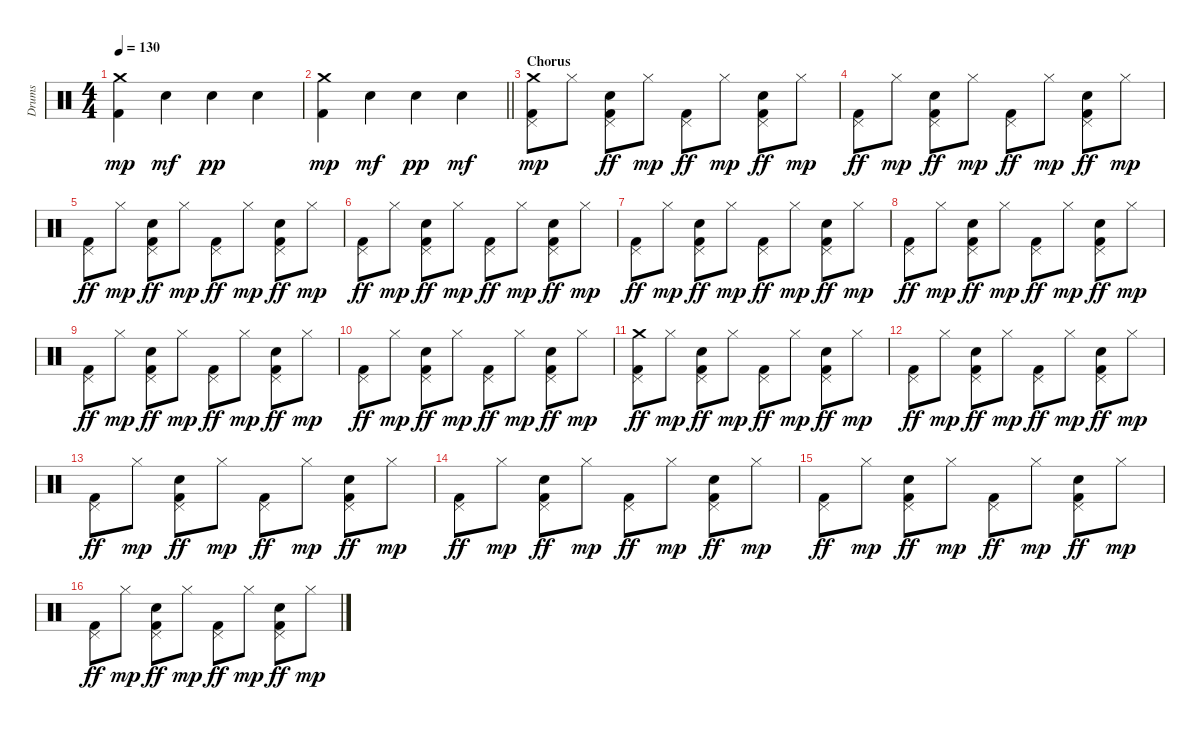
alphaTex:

\track ("Drums" "Drums") {instrument percussion}
\staff {score}
\articulation defaults
\ts (4 4)
\tempo 130
\clef neutral
\ks c
("Kick (hit) 2" "Crash medium (hit)").4{dy mp} "Electric Snare (hit)".4{dy mf} "Electric Snare (hit)".4{dy pp} "Electric Snare (hit)".4 |
\barLineRight lightlight
("Kick (hit) 2" "Crash medium (hit)").4{dy mp} "Electric Snare (hit)".4{dy mf} "Electric Snare (hit)".4{dy pp} "Electric Snare (hit)".4{dy mf} |
\section ("" "Chorus")
("Pedal Hi-Hat (hit)" "Kick (hit) 2" "Crash medium (hit)").8{dy mp} "Hi-Hat (closed)".8 ("Electric Snare (hit)" "Pedal Hi-Hat (hit)" "Kick (hit) 2").8{dy ff} "Hi-Hat (closed)".8{dy mp} ("Pedal Hi-Hat (hit)" "Kick (hit) 2").8{dy ff} "Hi-Hat (closed)".8{dy mp} ("Electric Snare (hit)" "Pedal Hi-Hat (hit)" "Kick (hit) 2").8{dy ff} "Hi-Hat (closed)".8{dy mp} |
("Pedal Hi-Hat (hit)" "Kick (hit) 2").8{dy ff} "Hi-Hat (closed)".8{dy mp} ("Electric Snare (hit)" "Pedal Hi-Hat (hit)" "Kick (hit) 2").8{dy ff} "Hi-Hat (closed)".8{dy mp} ("Pedal Hi-Hat (hit)" "Kick (hit) 2").8{dy ff} "Hi-Hat (closed)".8{dy mp} ("Electric Snare (hit)" "Pedal Hi-Hat (hit)" "Kick (hit) 2").8{dy ff} "Hi-Hat (closed)".8{dy mp} |
("Pedal Hi-Hat (hit)" "Kick (hit) 2").8{dy ff} "Hi-Hat (closed)".8{dy mp} ("Electric Snare (hit)" "Pedal Hi-Hat (hit)" "Kick (hit) 2").8{dy ff} "Hi-Hat (closed)".8{dy mp} ("Pedal Hi-Hat (hit)" "Kick (hit) 2").8{dy ff} "Hi-Hat (closed)".8{dy mp} ("Electric Snare (hit)" "Pedal Hi-Hat (hit)" "Kick (hit) 2").8{dy ff} "Hi-Hat (closed)".8{dy mp} |
("Pedal Hi-Hat (hit)" "Kick (hit) 2").8{dy ff} "Hi-Hat (closed)".8{dy mp} ("Electric Snare (hit)" "Pedal Hi-Hat (hit)" "Kick (hit) 2").8{dy ff} "Hi-Hat (closed)".8{dy mp} ("Pedal Hi-Hat (hit)" "Kick (hit) 2").8{dy ff} "Hi-Hat (closed)".8{dy mp} ("Electric Snare (hit)" "Pedal Hi-Hat (hit)" "Kick (hit) 2").8{dy ff} "Hi-Hat (closed)".8{dy mp} |
("Pedal Hi-Hat (hit)" "Kick (hit) 2").8{dy ff} "Hi-Hat (closed)".8{dy mp} ("Electric Snare (hit)" "Pedal Hi-Hat (hit)" "Kick (hit) 2").8{dy ff} "Hi-Hat (closed)".8{dy mp} ("Pedal Hi-Hat (hit)" "Kick (hit) 2").8{dy ff} "Hi-Hat (closed)".8{dy mp} ("Electric Snare (hit)" "Pedal Hi-Hat (hit)" "Kick (hit) 2").8{dy ff} "Hi-Hat (closed)".8{dy mp} |
("Pedal Hi-Hat (hit)" "Kick (hit) 2").8{dy ff} "Hi-Hat (closed)".8{dy mp} ("Electric Snare (hit)" "Pedal Hi-Hat (hit)" "Kick (hit) 2").8{dy ff} "Hi-Hat (closed)".8{dy mp} ("Pedal Hi-Hat (hit)" "Kick (hit) 2").8{dy ff} "Hi-Hat (closed)".8{dy mp} ("Electric Snare (hit)" "Pedal Hi-Hat (hit)" "Kick (hit) 2").8{dy ff} "Hi-Hat (closed)".8{dy mp} |
("Pedal Hi-Hat (hit)" "Kick (hit) 2").8{dy ff} "Hi-Hat (closed)".8{dy mp} ("Electric Snare (hit)" "Pedal Hi-Hat (hit)" "Kick (hit) 2").8{dy ff} "Hi-Hat (closed)".8{dy mp} ("Pedal Hi-Hat (hit)" "Kick (hit) 2").8{dy ff} "Hi-Hat (closed)".8{dy mp} ("Electric Snare (hit)" "Pedal Hi-Hat (hit)" "Kick (hit) 2").8{dy ff} "Hi-Hat (closed)".8{dy mp} |
("Pedal Hi-Hat (hit)" "Kick (hit) 2").8{dy ff} "Hi-Hat (closed)".8{dy mp} ("Electric Snare (hit)" "Pedal Hi-Hat (hit)" "Kick (hit) 2").8{dy ff} "Hi-Hat (closed)".8{dy mp} ("Pedal Hi-Hat (hit)" "Kick (hit) 2").8{dy ff} "Hi-Hat (closed)".8{dy mp} ("Electric Snare (hit)" "Pedal Hi-Hat (hit)" "Kick (hit) 2").8{dy ff} "Hi-Hat (closed)".8{dy mp} |
("Crash medium (hit)" "Pedal Hi-Hat (hit)" "Kick (hit) 2").8{dy ff} "Hi-Hat (closed)".8{dy mp} ("Electric Snare (hit)" "Pedal Hi-Hat (hit)" "Kick (hit) 2").8{dy ff} "Hi-Hat (closed)".8{dy mp} ("Pedal Hi-Hat (hit)" "Kick (hit) 2").8{dy ff} "Hi-Hat (closed)".8{dy mp} ("Electric Snare (hit)" "Pedal Hi-Hat (hit)" "Kick (hit) 2").8{dy ff} "Hi-Hat (closed)".8{dy mp} |
("Pedal Hi-Hat (hit)" "Kick (hit) 2").8{dy ff} "Hi-Hat (closed)".8{dy mp} ("Electric Snare (hit)" "Pedal Hi-Hat (hit)" "Kick (hit) 2").8{dy ff} "Hi-Hat (closed)".8{dy mp} ("Pedal Hi-Hat (hit)" "Kick (hit) 2").8{dy ff} "Hi-Hat (closed)".8{dy mp} ("Electric Snare (hit)" "Pedal Hi-Hat (hit)" "Kick (hit) 2").8{dy ff} "Hi-Hat (closed)".8{dy mp} |
("Pedal Hi-Hat (hit)" "Kick (hit) 2").8{dy ff} "Hi-Hat (closed)".8{dy mp} ("Electric Snare (hit)" "Pedal Hi-Hat (hit)" "Kick (hit) 2").8{dy ff} "Hi-Hat (closed)".8{dy mp} ("Pedal Hi-Hat (hit)" "Kick (hit) 2").8{dy ff} "Hi-Hat (closed)".8{dy mp} ("Electric Snare (hit)" "Pedal Hi-Hat (hit)" "Kick (hit) 2").8{dy ff} "Hi-Hat (closed)".8{dy mp} |
("Pedal Hi-Hat (hit)" "Kick (hit) 2").8{dy ff} "Hi-Hat (closed)".8{dy mp} ("Electric Snare (hit)" "Pedal Hi-Hat (hit)" "Kick (hit) 2").8{dy ff} "Hi-Hat (closed)".8{dy mp} ("Pedal Hi-Hat (hit)" "Kick (hit) 2").8{dy ff} "Hi-Hat (closed)".8{dy mp} ("Electric Snare (hit)" "Pedal Hi-Hat (hit)" "Kick (hit) 2").8{dy ff} "Hi-Hat (closed)".8{dy mp} |
("Pedal Hi-Hat (hit)" "Kick (hit) 2").8{dy ff} "Hi-Hat (closed)".8{dy mp} ("Electric Snare (hit)" "Pedal Hi-Hat (hit)" "Kick (hit) 2").8{dy ff} "Hi-Hat (closed)".8{dy mp} ("Pedal Hi-Hat (hit)" "Kick (hit) 2").8{dy ff} "Hi-Hat (closed)".8{dy mp} ("Electric Snare (hit)" "Pedal Hi-Hat (hit)" "Kick (hit) 2").8{dy ff} "Hi-Hat (closed)".8{dy mp} |
("Pedal Hi-Hat (hit)" "Kick (hit) 2").8{dy ff} "Hi-Hat (closed)".8{dy mp} ("Electric Snare (hit)" "Pedal Hi-Hat (hit)" "Kick (hit) 2").8{dy ff} "Hi-Hat (closed)".8{dy mp} ("Pedal Hi-Hat (hit)" "Kick (hit) 2").8{dy ff} "Hi-Hat (closed)".8{dy mp} ("Electric Snare (hit)" "Pedal Hi-Hat (hit)" "Kick (hit) 2").8{dy ff} "Hi-Hat (closed)".8{dy mp}
